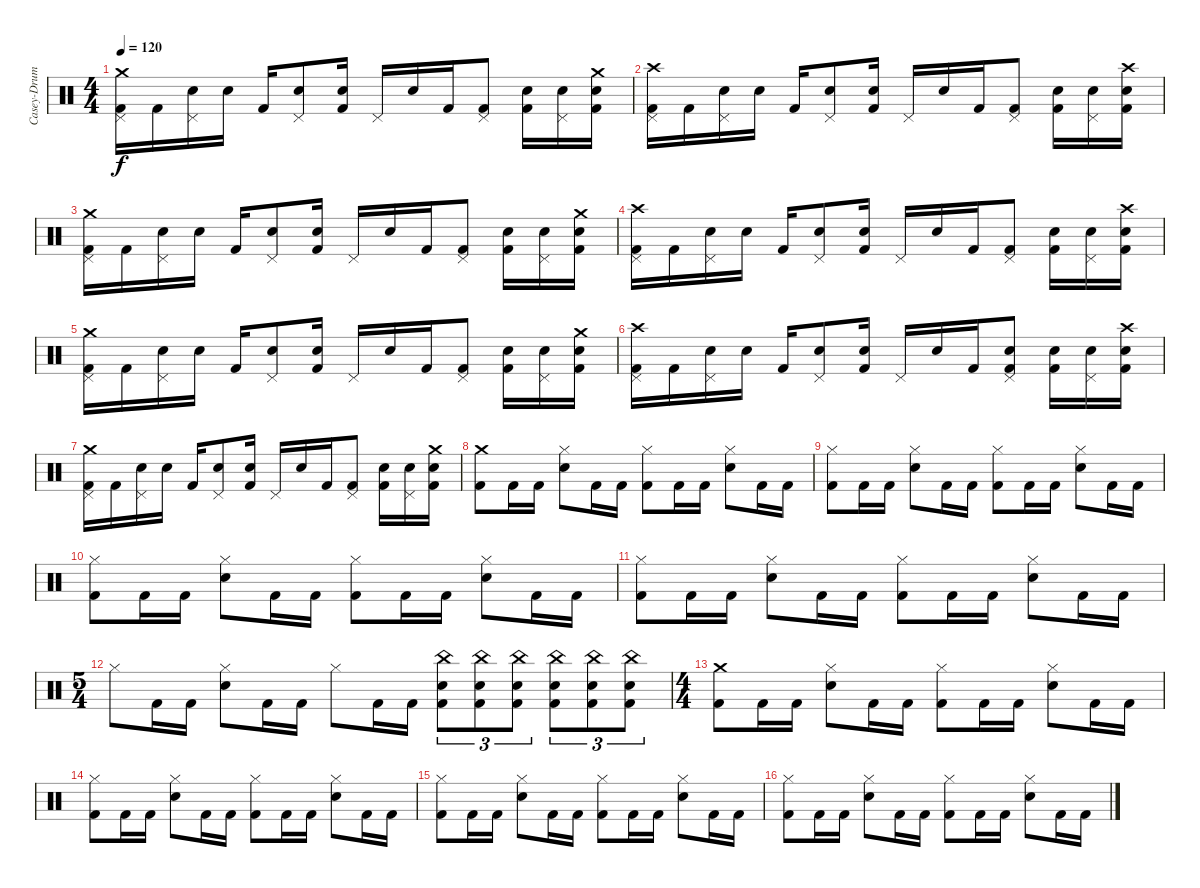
\track ("Casey-Drums" "Casey-Drum") {instrument percussion}
\staff {score}
\articulation defaults
\ts (4 4)
\tempo 120
\clef neutral
\ks c
("Crash medium (hit)" "Pedal Hi-Hat (hit)" "Kick (hit) 2").16{dy f} "Kick (hit) 2".16 ("Pedal Hi-Hat (hit)" "Electric Snare (hit)").16 "Snare (hit)".16 "Kick (hit) 2".16 ("Pedal Hi-Hat (hit)" "Electric Snare (hit)").8 ("Electric Snare (hit)" "Kick (hit) 2").16 "Pedal Hi-Hat (hit)".16 "Electric Snare (hit)".16 "Kick (hit) 2".16 ("Pedal Hi-Hat (hit)" "Kick (hit) 2").8 ("Electric Snare (hit)" "Kick (hit) 2").16 ("Pedal Hi-Hat (hit)" "Electric Snare (hit)").16 ("Crash medium (hit)" "Electric Snare (hit)" "Kick (hit) 2").16 |
("Crash high (hit)" "Pedal Hi-Hat (hit)" "Kick (hit) 2").16 "Kick (hit) 2".16 ("Pedal Hi-Hat (hit)" "Electric Snare (hit)").16 "Snare (hit)".16 "Kick (hit) 2".16 ("Pedal Hi-Hat (hit)" "Electric Snare (hit)").8 ("Electric Snare (hit)" "Kick (hit) 2").16 "Pedal Hi-Hat (hit)".16 "Electric Snare (hit)".16 "Kick (hit) 2".16 ("Pedal Hi-Hat (hit)" "Kick (hit) 2").8 ("Electric Snare (hit)" "Kick (hit) 2").16 ("Pedal Hi-Hat (hit)" "Electric Snare (hit)").16 ("Crash high (hit)" "Electric Snare (hit)" "Kick (hit) 2").16 |
("Crash medium (hit)" "Pedal Hi-Hat (hit)" "Kick (hit) 2").16 "Kick (hit) 2".16 ("Pedal Hi-Hat (hit)" "Electric Snare (hit)").16 "Snare (hit)".16 "Kick (hit) 2".16 ("Pedal Hi-Hat (hit)" "Electric Snare (hit)").8 ("Electric Snare (hit)" "Kick (hit) 2").16 "Pedal Hi-Hat (hit)".16 "Electric Snare (hit)".16 "Kick (hit) 2".16 ("Pedal Hi-Hat (hit)" "Kick (hit) 2").8 ("Electric Snare (hit)" "Kick (hit) 2").16 ("Pedal Hi-Hat (hit)" "Electric Snare (hit)").16 ("Crash medium (hit)" "Electric Snare (hit)" "Kick (hit) 2").16 |
("Crash high (hit)" "Pedal Hi-Hat (hit)" "Kick (hit) 2").16 "Kick (hit) 2".16 ("Pedal Hi-Hat (hit)" "Electric Snare (hit)").16 "Snare (hit)".16 "Kick (hit) 2".16 ("Pedal Hi-Hat (hit)" "Electric Snare (hit)").8 ("Electric Snare (hit)" "Kick (hit) 2").16 "Pedal Hi-Hat (hit)".16 "Electric Snare (hit)".16 "Kick (hit) 2".16 ("Pedal Hi-Hat (hit)" "Kick (hit) 2").8 ("Electric Snare (hit)" "Kick (hit) 2").16 ("Pedal Hi-Hat (hit)" "Electric Snare (hit)").16 ("Crash high (hit)" "Electric Snare (hit)" "Kick (hit) 2").16 |
("Crash medium (hit)" "Pedal Hi-Hat (hit)" "Kick (hit) 2").16 "Kick (hit) 2".16 ("Pedal Hi-Hat (hit)" "Electric Snare (hit)").16 "Snare (hit)".16 "Kick (hit) 2".16 ("Pedal Hi-Hat (hit)" "Electric Snare (hit)").8 ("Electric Snare (hit)" "Kick (hit) 2").16 "Pedal Hi-Hat (hit)".16 "Electric Snare (hit)".16 "Kick (hit) 2".16 ("Pedal Hi-Hat (hit)" "Kick (hit) 2").8 ("Electric Snare (hit)" "Kick (hit) 2").16 ("Pedal Hi-Hat (hit)" "Electric Snare (hit)").16 ("Crash medium (hit)" "Electric Snare (hit)" "Kick (hit) 2").16 |
("Crash high (hit)" "Pedal Hi-Hat (hit)" "Kick (hit) 2").16 "Kick (hit) 2".16 ("Pedal Hi-Hat (hit)" "Electric Snare (hit)").16 "Snare (hit)".16 "Kick (hit) 2".16 ("Pedal Hi-Hat (hit)" "Electric Snare (hit)").8 ("Electric Snare (hit)" "Kick (hit) 2").16 "Pedal Hi-Hat (hit)".16 "Electric Snare (hit)".16 "Kick (hit) 2".16 ("Snare (hit)" "Pedal Hi-Hat (hit)" "Kick (hit) 2").8 ("Electric Snare (hit)" "Kick (hit) 2").16 ("Pedal Hi-Hat (hit)" "Electric Snare (hit)").16 ("Crash high (hit)" "Electric Snare (hit)" "Kick (hit) 2").16 |
("Crash medium (hit)" "Pedal Hi-Hat (hit)" "Kick (hit) 2").16 "Kick (hit) 2".16 ("Pedal Hi-Hat (hit)" "Electric Snare (hit)").16 "Snare (hit)".16 "Kick (hit) 2".16 ("Pedal Hi-Hat (hit)" "Electric Snare (hit)").8 ("Electric Snare (hit)" "Kick (hit) 2").16 "Pedal Hi-Hat (hit)".16 "Electric Snare (hit)".16 "Kick (hit) 2".16 ("Pedal Hi-Hat (hit)" "Kick (hit) 2").8 ("Electric Snare (hit)" "Kick (hit) 2").16 ("Pedal Hi-Hat (hit)" "Electric Snare (hit)").16 ("Crash medium (hit)" "Electric Snare (hit)" "Kick (hit) 2").16 |
("Crash medium (hit)" "Kick (hit) 2").8 "Kick (hit) 2".16 "Kick (hit) 2".16 ("Electric Snare (hit)" "Hi-Hat (closed)").8 "Kick (hit) 2".16 "Kick (hit) 2".16 ("Hi-Hat (closed)" "Kick (hit) 2").8 "Kick (hit) 2".16 "Kick (hit) 2".16 ("Electric Snare (hit)" "Hi-Hat (closed)").8 "Kick (hit) 2".16 "Kick (hit) 2".16 |
("Hi-Hat (closed)" "Kick (hit) 2").8 "Kick (hit) 2".16 "Kick (hit) 2".16 ("Electric Snare (hit)" "Hi-Hat (closed)").8 "Kick (hit) 2".16 "Kick (hit) 2".16 ("Hi-Hat (closed)" "Kick (hit) 2").8 "Kick (hit) 2".16 "Kick (hit) 2".16 ("Electric Snare (hit)" "Hi-Hat (closed)").8 "Kick (hit) 2".16 "Kick (hit) 2".16 |
("Hi-Hat (closed)" "Kick (hit) 2").8 "Kick (hit) 2".16 "Kick (hit) 2".16 ("Electric Snare (hit)" "Hi-Hat (closed)").8 "Kick (hit) 2".16 "Kick (hit) 2".16 ("Hi-Hat (closed)" "Kick (hit) 2").8 "Kick (hit) 2".16 "Kick (hit) 2".16 ("Electric Snare (hit)" "Hi-Hat (closed)").8 "Kick (hit) 2".16 "Kick (hit) 2".16 |
("Hi-Hat (closed)" "Kick (hit) 2").8 "Kick (hit) 2".16 "Kick (hit) 2".16 ("Electric Snare (hit)" "Hi-Hat (closed)").8 "Kick (hit) 2".16 "Kick (hit) 2".16 ("Hi-Hat (closed)" "Kick (hit) 2").8 "Kick (hit) 2".16 "Kick (hit) 2".16 ("Electric Snare (hit)" "Hi-Hat (closed)").8 "Kick (hit) 2".16 "Kick (hit) 2".16 |
\ts (5 4)
"Hi-Hat (closed)".8 "Kick (hit) 2".16 "Kick (hit) 2".16 ("Hi-Hat (closed)" "Electric Snare (hit)").8 "Kick (hit) 2".16 "Kick (hit) 2".16 "Hi-Hat (closed)".8 "Kick (hit) 2".16 "Kick (hit) 2".16 ("China (hit)" "Electric Snare (hit)" "Kick (hit) 2").8{tu (3 2)} ("China (hit)" "Electric Snare (hit)" "Kick (hit) 2").8{tu (3 2)} ("China (hit)" "Electric Snare (hit)" "Kick (hit) 2").8{tu (3 2)} ("China (hit)" "Electric Snare (hit)" "Kick (hit) 2").8{tu (3 2)} ("China (hit)" "Electric Snare (hit)" "Kick (hit) 2").8{tu (3 2)} ("China (hit)" "Electric Snare (hit)" "Kick (hit) 2").8{tu (3 2)} |
\ts (4 4)
("Crash medium (hit)" "Kick (hit) 2").8 "Kick (hit) 2".16 "Kick (hit) 2".16 ("Electric Snare (hit)" "Hi-Hat (closed)").8 "Kick (hit) 2".16 "Kick (hit) 2".16 ("Hi-Hat (closed)" "Kick (hit) 2").8 "Kick (hit) 2".16 "Kick (hit) 2".16 ("Electric Snare (hit)" "Hi-Hat (closed)").8 "Kick (hit) 2".16 "Kick (hit) 2".16 |
("Hi-Hat (closed)" "Kick (hit) 2").8 "Kick (hit) 2".16 "Kick (hit) 2".16 ("Electric Snare (hit)" "Hi-Hat (closed)").8 "Kick (hit) 2".16 "Kick (hit) 2".16 ("Hi-Hat (closed)" "Kick (hit) 2").8 "Kick (hit) 2".16 "Kick (hit) 2".16 ("Electric Snare (hit)" "Hi-Hat (closed)").8 "Kick (hit) 2".16 "Kick (hit) 2".16 |
("Hi-Hat (closed)" "Kick (hit) 2").8 "Kick (hit) 2".16 "Kick (hit) 2".16 ("Electric Snare (hit)" "Hi-Hat (closed)").8 "Kick (hit) 2".16 "Kick (hit) 2".16 ("Hi-Hat (closed)" "Kick (hit) 2").8 "Kick (hit) 2".16 "Kick (hit) 2".16 ("Electric Snare (hit)" "Hi-Hat (closed)").8 "Kick (hit) 2".16 "Kick (hit) 2".16 |
("Hi-Hat (closed)" "Kick (hit) 2").8 "Kick (hit) 2".16 "Kick (hit) 2".16 ("Electric Snare (hit)" "Hi-Hat (closed)").8 "Kick (hit) 2".16 "Kick (hit) 2".16 ("Hi-Hat (closed)" "Kick (hit) 2").8 "Kick (hit) 2".16 "Kick (hit) 2".16 ("Electric Snare (hit)" "Hi-Hat (closed)").8 "Kick (hit) 2".16 "Kick (hit) 2".16
